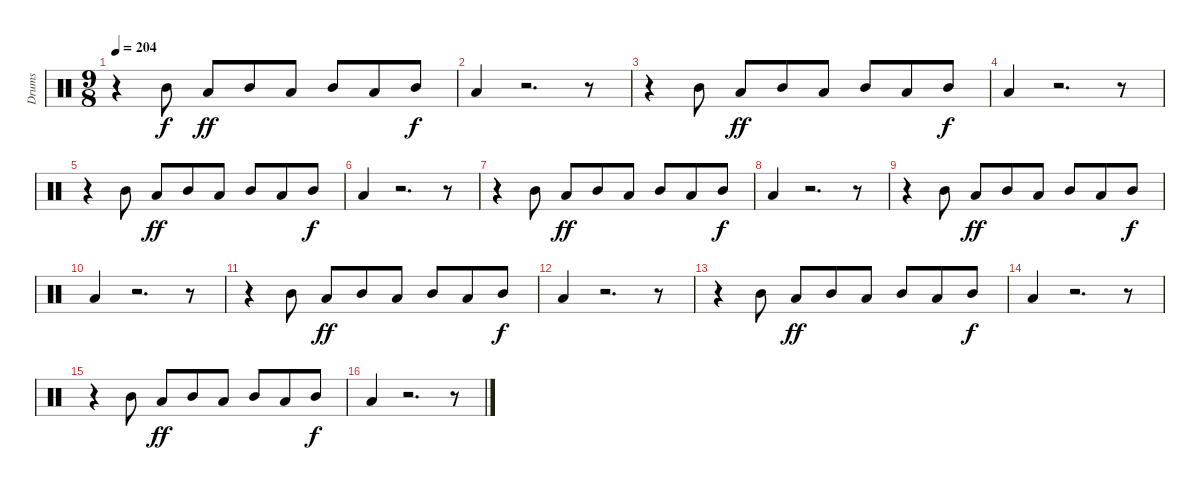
\track ("Drums" "Drums") {instrument percussion}
\staff {score}
\articulation defaults
\ts (9 8)
\tempo 204
\clef neutral
\ks c
r.4{dy f} "Mid Tom (hit)".8 "Low Tom (hit)".8{dy ff} "Mid Tom (hit)".8 "Low Tom (hit)".8 "Mid Tom (hit)".8 "Low Tom (hit)".8 "Mid Tom (hit)".8{dy f} |
"Low Tom (hit)".4 r.2{d} r.8 |
r.4 "Mid Tom (hit)".8 "Low Tom (hit)".8{dy ff} "Mid Tom (hit)".8 "Low Tom (hit)".8 "Mid Tom (hit)".8 "Low Tom (hit)".8 "Mid Tom (hit)".8{dy f} |
"Low Tom (hit)".4 r.2{d} r.8 |
r.4 "Mid Tom (hit)".8 "Low Tom (hit)".8{dy ff} "Mid Tom (hit)".8 "Low Tom (hit)".8 "Mid Tom (hit)".8 "Low Tom (hit)".8 "Mid Tom (hit)".8{dy f} |
"Low Tom (hit)".4 r.2{d} r.8 |
r.4 "Mid Tom (hit)".8 "Low Tom (hit)".8{dy ff} "Mid Tom (hit)".8 "Low Tom (hit)".8 "Mid Tom (hit)".8 "Low Tom (hit)".8 "Mid Tom (hit)".8{dy f} |
"Low Tom (hit)".4 r.2{d} r.8 |
r.4 "Mid Tom (hit)".8 "Low Tom (hit)".8{dy ff} "Mid Tom (hit)".8 "Low Tom (hit)".8 "Mid Tom (hit)".8 "Low Tom (hit)".8 "Mid Tom (hit)".8{dy f} |
"Low Tom (hit)".4 r.2{d} r.8 |
r.4 "Mid Tom (hit)".8 "Low Tom (hit)".8{dy ff} "Mid Tom (hit)".8 "Low Tom (hit)".8 "Mid Tom (hit)".8 "Low Tom (hit)".8 "Mid Tom (hit)".8{dy f} |
"Low Tom (hit)".4 r.2{d} r.8 |
r.4 "Mid Tom (hit)".8 "Low Tom (hit)".8{dy ff} "Mid Tom (hit)".8 "Low Tom (hit)".8 "Mid Tom (hit)".8 "Low Tom (hit)".8 "Mid Tom (hit)".8{dy f} |
"Low Tom (hit)".4 r.2{d} r.8 |
r.4 "Mid Tom (hit)".8 "Low Tom (hit)".8{dy ff} "Mid Tom (hit)".8 "Low Tom (hit)".8 "Mid Tom (hit)".8 "Low Tom (hit)".8 "Mid Tom (hit)".8{dy f} |
"Low Tom (hit)".4 r.2{d} r.8
